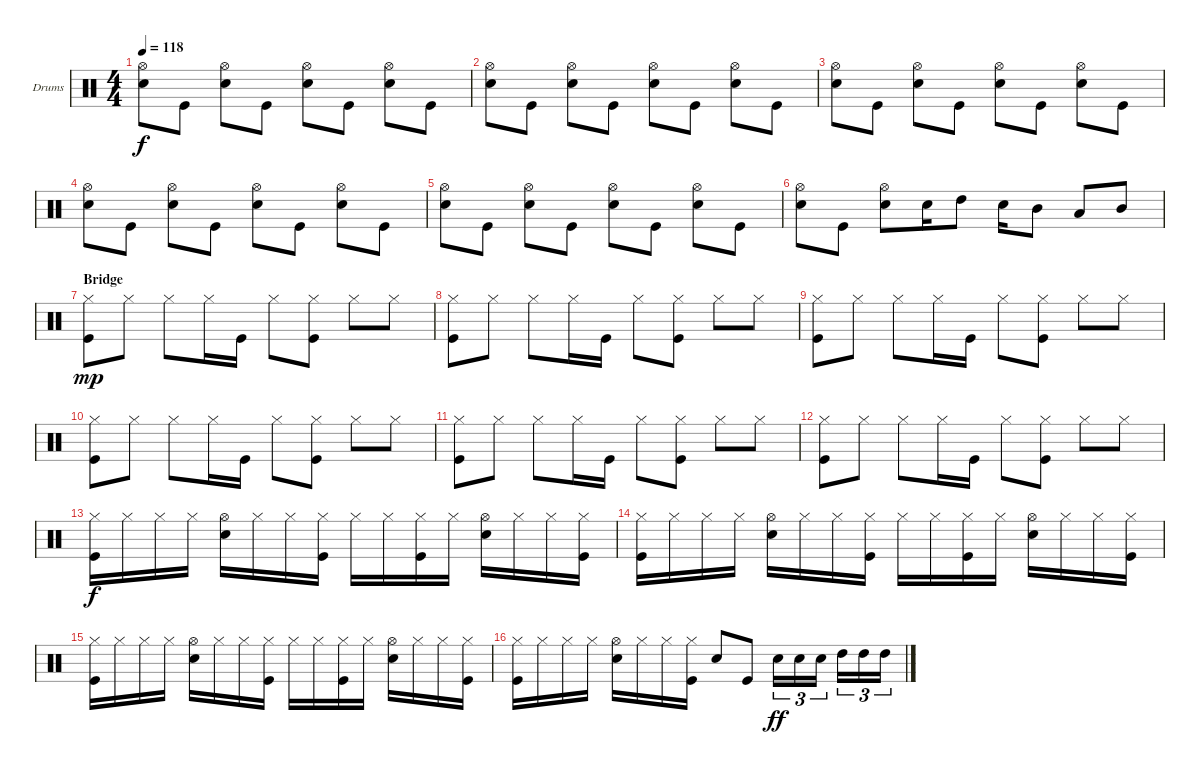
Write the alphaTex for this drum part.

\defaultSystemsLayout 4
\bracketExtendMode groupsimilarinstruments
\firstSystemTrackNameOrientation horizontal
\otherSystemsTrackNameOrientation horizontal
\track ("Drumkit" "Drums") {instrument percussion}
\staff {score}
\articulation defaults
\ts (4 4)
\tempo 118
\clef neutral
\ks c
("Snare (hit) 2" "Hi-Hat (open)").8{dy f} "Kick (hit)".8 ("Snare (hit) 2" "Hi-Hat (open)").8 "Kick (hit)".8 ("Hi-Hat (open)" "Snare (hit) 2").8 "Kick (hit)".8 ("Hi-Hat (open)" "Snare (hit) 2").8 "Kick (hit)".8 |
("Snare (hit) 2" "Hi-Hat (open)").8 "Kick (hit)".8 ("Snare (hit) 2" "Hi-Hat (open)").8 "Kick (hit)".8 ("Hi-Hat (open)" "Snare (hit) 2").8 "Kick (hit)".8 ("Hi-Hat (open)" "Snare (hit) 2").8 "Kick (hit)".8 |
("Snare (hit) 2" "Hi-Hat (open)").8 "Kick (hit)".8 ("Snare (hit) 2" "Hi-Hat (open)").8 "Kick (hit)".8 ("Hi-Hat (open)" "Snare (hit) 2").8 "Kick (hit)".8 ("Hi-Hat (open)" "Snare (hit) 2").8 "Kick (hit)".8 |
("Snare (hit) 2" "Hi-Hat (open)").8 "Kick (hit)".8 ("Snare (hit) 2" "Hi-Hat (open)").8 "Kick (hit)".8 ("Hi-Hat (open)" "Snare (hit) 2").8 "Kick (hit)".8 ("Hi-Hat (open)" "Snare (hit) 2").8 "Kick (hit)".8 |
("Snare (hit) 2" "Hi-Hat (open)").8 "Kick (hit)".8 ("Snare (hit) 2" "Hi-Hat (open)").8 "Kick (hit)".8 ("Hi-Hat (open)" "Snare (hit) 2").8 "Kick (hit)".8 ("Hi-Hat (open)" "Snare (hit) 2").8 "Kick (hit)".8 |
("Snare (hit) 2" "Hi-Hat (open)").8 "Kick (hit)".8 ("Snare (hit) 2" "Hi-Hat (open)").8 "Snare (hit) 2".16 "High Tom (hit)".8 "Snare (hit) 2".16 "Mid Tom (hit)".8 "Low Tom (hit)".8 "Mid Tom (hit)".8 |
\section ("" "Bridge")
("Hi-Hat (closed)" "Kick (hit)").8{dy mp} "Hi-Hat (closed)".8 "Hi-Hat (closed)".8 "Hi-Hat (closed)".16 "Kick (hit)".16 "Hi-Hat (closed)".8 ("Kick (hit)" "Hi-Hat (closed)").8 "Hi-Hat (closed)".8 "Hi-Hat (closed)".8 |
("Hi-Hat (closed)" "Kick (hit)").8 "Hi-Hat (closed)".8 "Hi-Hat (closed)".8 "Hi-Hat (closed)".16 "Kick (hit)".16 "Hi-Hat (closed)".8 ("Kick (hit)" "Hi-Hat (closed)").8 "Hi-Hat (closed)".8 "Hi-Hat (closed)".8 |
("Hi-Hat (closed)" "Kick (hit)").8 "Hi-Hat (closed)".8 "Hi-Hat (closed)".8 "Hi-Hat (closed)".16 "Kick (hit)".16 "Hi-Hat (closed)".8 ("Kick (hit)" "Hi-Hat (closed)").8 "Hi-Hat (closed)".8 "Hi-Hat (closed)".8 |
("Hi-Hat (closed)" "Kick (hit)").8 "Hi-Hat (closed)".8 "Hi-Hat (closed)".8 "Hi-Hat (closed)".16 "Kick (hit)".16 "Hi-Hat (closed)".8 ("Kick (hit)" "Hi-Hat (closed)").8 "Hi-Hat (closed)".8 "Hi-Hat (closed)".8 |
("Hi-Hat (closed)" "Kick (hit)").8 "Hi-Hat (closed)".8 "Hi-Hat (closed)".8 "Hi-Hat (closed)".16 "Kick (hit)".16 "Hi-Hat (closed)".8 ("Kick (hit)" "Hi-Hat (closed)").8 "Hi-Hat (closed)".8 "Hi-Hat (closed)".8 |
("Hi-Hat (closed)" "Kick (hit)").8 "Hi-Hat (closed)".8 "Hi-Hat (closed)".8 "Hi-Hat (closed)".16 "Kick (hit)".16 "Hi-Hat (closed)".8 ("Kick (hit)" "Hi-Hat (closed)").8 "Hi-Hat (closed)".8 "Hi-Hat (closed)".8 |
("Hi-Hat (closed)" "Kick (hit)").16{dy f} "Hi-Hat (closed)".16 "Hi-Hat (closed)".16 "Hi-Hat (closed)".16 ("Hi-Hat (open)" "Snare (hit) 2").16 "Hi-Hat (closed)".16 "Hi-Hat (closed)".16 ("Kick (hit)" "Hi-Hat (closed)").16 "Hi-Hat (closed)".16 "Hi-Hat (closed)".16 ("Kick (hit)" "Hi-Hat (closed)").16 "Hi-Hat (closed)".16 ("Hi-Hat (open)" "Snare (hit) 2").16 "Hi-Hat (closed)".16 "Hi-Hat (closed)".16 ("Hi-Hat (closed)" "Kick (hit)").16 |
("Hi-Hat (closed)" "Kick (hit)").16 "Hi-Hat (closed)".16 "Hi-Hat (closed)".16 "Hi-Hat (closed)".16 ("Hi-Hat (open)" "Snare (hit) 2").16 "Hi-Hat (closed)".16 "Hi-Hat (closed)".16 ("Kick (hit)" "Hi-Hat (closed)").16 "Hi-Hat (closed)".16 "Hi-Hat (closed)".16 ("Kick (hit)" "Hi-Hat (closed)").16 "Hi-Hat (closed)".16 ("Hi-Hat (open)" "Snare (hit) 2").16 "Hi-Hat (closed)".16 "Hi-Hat (closed)".16 ("Hi-Hat (closed)" "Kick (hit)").16 |
("Hi-Hat (closed)" "Kick (hit)").16 "Hi-Hat (closed)".16 "Hi-Hat (closed)".16 "Hi-Hat (closed)".16 ("Hi-Hat (open)" "Snare (hit) 2").16 "Hi-Hat (closed)".16 "Hi-Hat (closed)".16 ("Kick (hit)" "Hi-Hat (closed)").16 "Hi-Hat (closed)".16 "Hi-Hat (closed)".16 ("Kick (hit)" "Hi-Hat (closed)").16 "Hi-Hat (closed)".16 ("Hi-Hat (open)" "Snare (hit) 2").16 "Hi-Hat (closed)".16 "Hi-Hat (closed)".16 ("Hi-Hat (closed)" "Kick (hit)").16 |
("Hi-Hat (closed)" "Kick (hit)").16 "Hi-Hat (closed)".16 "Hi-Hat (closed)".16 "Hi-Hat (closed)".16 ("Hi-Hat (open)" "Snare (hit) 2").16 "Hi-Hat (closed)".16 "Hi-Hat (closed)".16 ("Kick (hit)" "Hi-Hat (closed)").16 "Snare (hit) 2".8 "Kick (hit)".8 "Snare (hit) 2".16{tu (3 2) dy ff} "Snare (hit) 2".16{tu (3 2)} "Snare (hit) 2".16{tu (3 2)} "High Tom (hit)".16{tu (3 2)} "High Tom (hit)".16{tu (3 2)} "High Tom (hit)".16{tu (3 2)}
